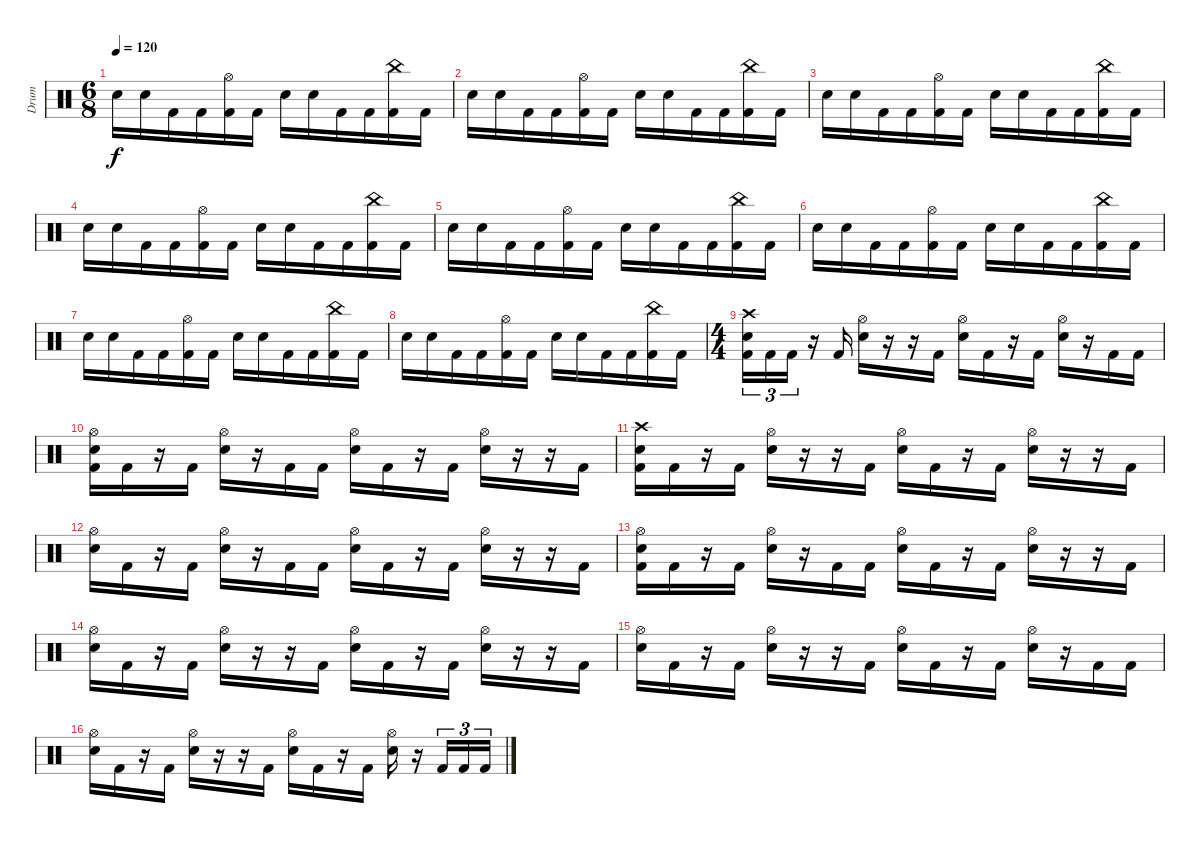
\track ("Drum" "Drum") {instrument percussion}
\staff {score}
\articulation defaults
\ts (6 8)
\tempo 120
\clef neutral
\ks c "Snare (hit) 2".16{dy f} "Snare (hit) 2".16 "Kick (hit) 2".16 "Kick (hit) 2".16
("Hi-Hat (open)" "Kick (hit) 2").16 "Kick (hit) 2".16 "Snare (hit) 2".16 "Snare (hit) 2".16 "Kick (hit) 2".16 "Kick (hit) 2".16 ("China (hit)" "Kick (hit) 2").16 "Kick (hit) 2".16 |
"Snare (hit) 2".16 "Snare (hit) 2".16 "Kick (hit) 2".16 "Kick (hit) 2".16 ("Hi-Hat (open)" "Kick (hit) 2").16 "Kick (hit) 2".16 "Snare (hit) 2".16 "Snare (hit) 2".16 "Kick (hit) 2".16 "Kick (hit) 2".16 ("China (hit)" "Kick (hit) 2").16 "Kick (hit) 2".16 |
"Snare (hit) 2".16 "Snare (hit) 2".16 "Kick (hit) 2".16 "Kick (hit) 2".16 ("Hi-Hat (open)" "Kick (hit) 2").16 "Kick (hit) 2".16 "Snare (hit) 2".16 "Snare (hit) 2".16 "Kick (hit) 2".16 "Kick (hit) 2".16 ("China (hit)" "Kick (hit) 2").16 "Kick (hit) 2".16 |
"Snare (hit) 2".16 "Snare (hit) 2".16 "Kick (hit) 2".16 "Kick (hit) 2".16 ("Hi-Hat (open)" "Kick (hit) 2").16 "Kick (hit) 2".16 "Snare (hit) 2".16 "Snare (hit) 2".16 "Kick (hit) 2".16 "Kick (hit) 2".16 ("China (hit)" "Kick (hit) 2").16 "Kick (hit) 2".16 |
"Snare (hit) 2".16 "Snare (hit) 2".16 "Kick (hit) 2".16 "Kick (hit) 2".16 ("Hi-Hat (open)" "Kick (hit) 2").16 "Kick (hit) 2".16 "Snare (hit) 2".16 "Snare (hit) 2".16 "Kick (hit) 2".16 "Kick (hit) 2".16 ("China (hit)" "Kick (hit) 2").16 "Kick (hit) 2".16 |
"Snare (hit) 2".16 "Snare (hit) 2".16 "Kick (hit) 2".16 "Kick (hit) 2".16 ("Hi-Hat (open)" "Kick (hit) 2").16 "Kick (hit) 2".16 "Snare (hit) 2".16 "Snare (hit) 2".16 "Kick (hit) 2".16 "Kick (hit) 2".16 ("China (hit)" "Kick (hit) 2").16 "Kick (hit) 2".16 |
"Snare (hit) 2".16 "Snare (hit) 2".16 "Kick (hit) 2".16 "Kick (hit) 2".16 ("Hi-Hat (open)" "Kick (hit) 2").16 "Kick (hit) 2".16 "Snare (hit) 2".16 "Snare (hit) 2".16 "Kick (hit) 2".16 "Kick (hit) 2".16 ("China (hit)" "Kick (hit) 2").16 "Kick (hit) 2".16 |
"Snare (hit) 2".16 "Snare (hit) 2".16 "Kick (hit) 2".16 "Kick (hit) 2".16 ("Hi-Hat (open)" "Kick (hit) 2").16 "Kick (hit) 2".16 "Snare (hit) 2".16 "Snare (hit) 2".16 "Kick (hit) 2".16 "Kick (hit) 2".16 ("China (hit)" "Kick (hit) 2").16 "Kick (hit) 2".16 |
\ts (4 4)
("Crash high (hit)" "Snare (hit) 2" "Kick (hit) 2").16{tu (3 2)} "Kick (hit) 2".16{tu (3 2)} "Kick (hit) 2".16{tu (3 2)} r.16 "Kick (hit) 2".16 ("Hi-Hat (open)" "Snare (hit) 2").16 r.16 r.16 "Kick (hit) 2".16 ("Hi-Hat (open)" "Snare (hit) 2").16 "Kick (hit) 2".16 r.16 "Kick (hit) 2".16 ("Hi-Hat (open)" "Snare (hit) 2").16 r.16 "Kick (hit) 2".16 "Kick (hit) 2".16 |
("Hi-Hat (open)" "Snare (hit) 2" "Kick (hit) 2").16 "Kick (hit) 2".16 r.16 "Kick (hit) 2".16 ("Snare (hit) 2" "Hi-Hat (open)").16 r.16 "Kick (hit) 2".16 "Kick (hit) 2".16 ("Snare (hit) 2" "Hi-Hat (open)").16 "Kick (hit) 2".16 r.16 "Kick (hit) 2".16 ("Snare (hit) 2" "Hi-Hat (open)").16 r.16 r.16 "Kick (hit) 2".16 |
("Snare (hit) 2" "Crash high (hit)" "Kick (hit) 2").16 "Kick (hit) 2".16 r.16 "Kick (hit) 2".16 ("Snare (hit) 2" "Hi-Hat (open)").16 r.16 r.16 "Kick (hit) 2".16 ("Snare (hit) 2" "Hi-Hat (open)").16 "Kick (hit) 2".16 r.16 "Kick (hit) 2".16 ("Snare (hit) 2" "Hi-Hat (open)").16 r.16 r.16 "Kick (hit) 2".16 |
("Snare (hit) 2" "Hi-Hat (open)").16 "Kick (hit) 2".16 r.16 "Kick (hit) 2".16 ("Snare (hit) 2" "Hi-Hat (open)").16 r.16 "Kick (hit) 2".16 "Kick (hit) 2".16 ("Snare (hit) 2" "Hi-Hat (open)").16 "Kick (hit) 2".16 r.16 "Kick (hit) 2".16 ("Snare (hit) 2" "Hi-Hat (open)").16 r.16 r.16 "Kick (hit) 2".16 |
("Hi-Hat (open)" "Snare (hit) 2" "Kick (hit) 2").16 "Kick (hit) 2".16 r.16 "Kick (hit) 2".16 ("Snare (hit) 2" "Hi-Hat (open)").16 r.16 "Kick (hit) 2".16 "Kick (hit) 2".16 ("Snare (hit) 2" "Hi-Hat (open)").16 "Kick (hit) 2".16 r.16 "Kick (hit) 2".16 ("Snare (hit) 2" "Hi-Hat (open)").16 r.16 r.16 "Kick (hit) 2".16 |
("Snare (hit) 2" "Hi-Hat (open)").16 "Kick (hit) 2".16 r.16 "Kick (hit) 2".16 ("Snare (hit) 2" "Hi-Hat (open)").16 r.16 r.16 "Kick (hit) 2".16 ("Snare (hit) 2" "Hi-Hat (open)").16 "Kick (hit) 2".16 r.16 "Kick (hit) 2".16 ("Snare (hit) 2" "Hi-Hat (open)").16 r.16 r.16 "Kick (hit) 2".16 |
("Snare (hit) 2" "Hi-Hat (open)").16 "Kick (hit) 2".16 r.16 "Kick (hit) 2".16 ("Snare (hit) 2" "Hi-Hat (open)").16 r.16 r.16 "Kick (hit) 2".16 ("Snare (hit) 2" "Hi-Hat (open)").16 "Kick (hit) 2".16 r.16 "Kick (hit) 2".16 ("Snare (hit) 2" "Hi-Hat (open)").16 r.16 "Kick (hit) 2".16 "Kick (hit) 2".16 |
("Snare (hit) 2" "Hi-Hat (open)").16 "Kick (hit) 2".16 r.16 "Kick (hit) 2".16 ("Snare (hit) 2" "Hi-Hat (open)").16 r.16 r.16 "Kick (hit) 2".16 ("Snare (hit) 2" "Hi-Hat (open)").16 "Kick (hit) 2".16 r.16 "Kick (hit) 2".16 ("Snare (hit) 2" "Hi-Hat (open)").16 r.16 "Kick (hit) 2".16{tu (3 2)} "Kick (hit) 2".16{tu (3 2)} "Kick (hit) 2".16{tu (3 2)}
